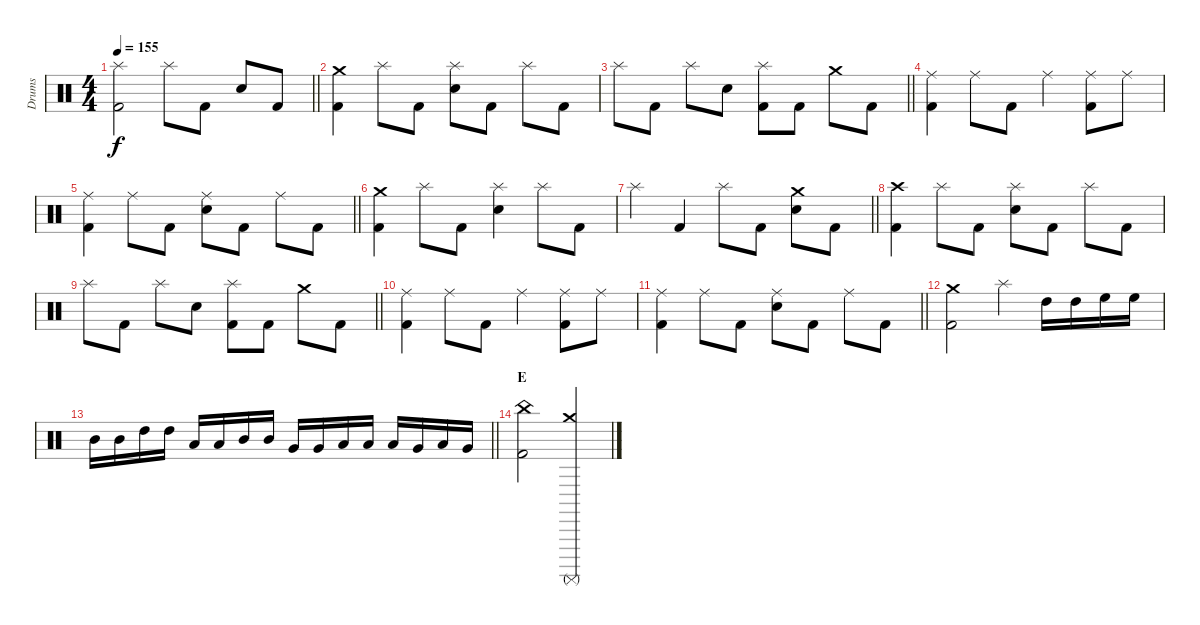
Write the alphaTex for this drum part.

\track ("Drums" "Drums") {instrument percussion}
\staff {score}
\articulation defaults
\ts (4 4)
\tempo 155
\clef neutral
\barLineRight lightlight
\ks c
("Splash (hit)" "Kick (hit) 2").2{dy f} "Splash (hit)".8 "Kick (hit) 2".8 "Electric Snare (hit)".8 "Kick (hit) 2".8 |
\section ("" "")
("Crash medium (hit)" "Kick (hit) 2").4 "Splash (hit)".8 "Kick (hit) 2".8 ("Splash (hit)" "Electric Snare (hit)").8 "Kick (hit) 2".8 "Splash (hit)".8 "Kick (hit) 2".8 |
\barLineRight lightlight "Splash (hit)".8 "Kick (hit) 2".8 "Splash (hit)".8 "Electric Snare (hit)".8
("Splash (hit)" "Kick (hit) 2").8 "Kick (hit) 2".8 "Crash medium (hit)".8 "Kick (hit) 2".8 |
\section ("" "")
("Ride (middle)" "Kick (hit) 2").4 "Ride (middle)".8 "Kick (hit) 2".8 "Ride (middle)".4 ("Ride (middle)" "Kick (hit) 2").8 "Ride (middle)".8 |
\barLineRight lightlight
("Ride (middle)" "Kick (hit) 2").4 "Ride (middle)".8 "Kick (hit) 2".8 ("Ride (middle)" "Electric Snare (hit)").8 "Kick (hit) 2".8 "Ride (middle)".8 "Kick (hit) 2".8 |
\section ("" "")
("Crash medium (hit)" "Kick (hit) 2").4 "Splash (hit)".8 "Kick (hit) 2".8 ("Splash (hit)" "Electric Snare (hit)").4 "Splash (hit)".8 "Kick (hit) 2".8 |
\barLineRight lightlight "Splash (hit)".4 "Kick (hit) 2".4 "Splash (hit)".8 "Kick (hit) 2".8
("Crash medium (hit)" "Electric Snare (hit)").8 "Kick (hit) 2".8 |
\section ("" "")
("Crash high (hit)" "Kick (hit) 2").4 "Splash (hit)".8 "Kick (hit) 2".8 ("Splash (hit)" "Electric Snare (hit)").8 "Kick (hit) 2".8 "Splash (hit)".8 "Kick (hit) 2".8 |
\barLineRight lightlight "Splash (hit)".8 "Kick (hit) 2".8 "Splash (hit)".8 "Electric Snare (hit)".8
("Splash (hit)" "Kick (hit) 2").8 "Kick (hit) 2".8 "Crash medium (hit)".8 "Kick (hit) 2".8 |
\section ("" "")
("Ride (middle)" "Kick (hit) 2").4 "Ride (middle)".8 "Kick (hit) 2".8 "Ride (middle)".4 ("Ride (middle)" "Kick (hit) 2").8 "Ride (middle)".8 |
\barLineRight lightlight
("Ride (middle)" "Kick (hit) 2").4 "Ride (middle)".8 "Kick (hit) 2".8 ("Ride (middle)" "Electric Snare (hit)").8 "Kick (hit) 2".8 "Ride (middle)".8 "Kick (hit) 2".8 |
\section ("" "")
("Crash medium (hit)" "Kick (hit) 2").2 "Splash (hit)".4 "High Tom (hit)".16 "High Tom (hit)".16 "High Floor Tom (hit)".16 "High Floor Tom (hit)".16 |
\barLineRight lightlight "Mid Tom (hit)".16 "Mid Tom (hit)".16 "High Tom (hit)".16 "High Tom (hit)".16 "Low Tom (hit)".16 "Low Tom (hit)".16 "Mid Tom (hit)".16 "Mid Tom (hit)".16 "Very Low Tom (hit)".16 "Very Low Tom (hit)".16 "Low Tom (hit)".16 "Low Tom (hit)".16 "Low Floor Tom (hit)".16 "Very Low Tom (hit)".16 "Low Floor Tom (hit)".16 "Very Low Tom (hit)".16
|
\section ("" "E")
("China (hit)" "Kick (hit) 2").2 ("Crash medium (hit)" "Surdo (mute)").2
